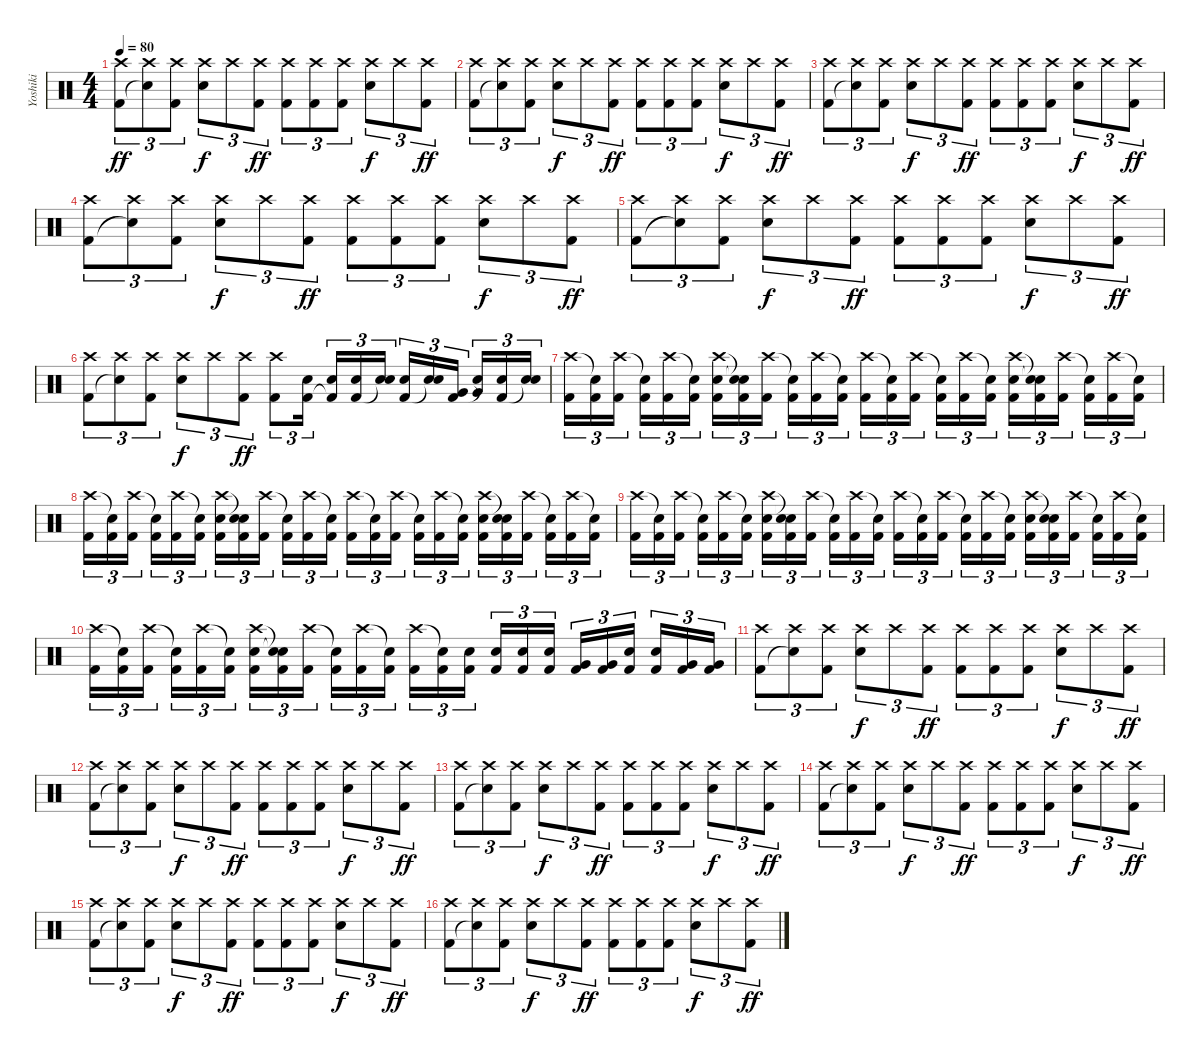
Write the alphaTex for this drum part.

\track ("Yoshiki" "Yoshiki") {instrument percussion}
\staff {score}
\articulation defaults
\ts (4 4)
\tempo 80
\clef neutral
\ks c
("Crash high (hit)" "Kick (hit) 2").8{tu (3 2) dy ff} ("Crash high (hit)" "Snare (hit)"{t}).8{tu (3 2)} ("Crash high (hit)" "Kick (hit) 2").8{tu (3 2)} ("Crash high (hit)" "Snare (hit) 2").8{tu (3 2) dy f} "Crash high (hit)".8{tu (3 2)} ("Crash high (hit)" "Kick (hit) 2").8{tu (3 2) dy ff} ("Crash high (hit)" "Kick (hit) 2").8{tu (3 2)} ("Crash high (hit)" "Kick (hit) 2").8{tu (3 2)} ("Crash high (hit)" "Kick (hit) 2").8{tu (3 2)} ("Crash high (hit)" "Snare (hit) 2").8{tu (3 2) dy f} "Crash high (hit)".8{tu (3 2)} ("Crash high (hit)" "Kick (hit) 2").8{tu (3 2) dy ff} |
("Crash high (hit)" "Kick (hit) 2").8{tu (3 2)} ("Crash high (hit)" "Snare (hit)"{t}).8{tu (3 2)} ("Crash high (hit)" "Kick (hit) 2").8{tu (3 2)} ("Crash high (hit)" "Snare (hit) 2").8{tu (3 2) dy f} "Crash high (hit)".8{tu (3 2)} ("Crash high (hit)" "Kick (hit) 2").8{tu (3 2) dy ff} ("Crash high (hit)" "Kick (hit) 2").8{tu (3 2)} ("Crash high (hit)" "Kick (hit) 2").8{tu (3 2)} ("Crash high (hit)" "Kick (hit) 2").8{tu (3 2)} ("Crash high (hit)" "Snare (hit) 2").8{tu (3 2) dy f} "Crash high (hit)".8{tu (3 2)} ("Crash high (hit)" "Kick (hit) 2").8{tu (3 2) dy ff} |
("Crash high (hit)" "Kick (hit) 2").8{tu (3 2)} ("Crash high (hit)" "Snare (hit)"{t}).8{tu (3 2)} ("Crash high (hit)" "Kick (hit) 2").8{tu (3 2)} ("Crash high (hit)" "Snare (hit) 2").8{tu (3 2) dy f} "Crash high (hit)".8{tu (3 2)} ("Crash high (hit)" "Kick (hit) 2").8{tu (3 2) dy ff} ("Crash high (hit)" "Kick (hit) 2").8{tu (3 2)} ("Crash high (hit)" "Kick (hit) 2").8{tu (3 2)} ("Crash high (hit)" "Kick (hit) 2").8{tu (3 2)} ("Crash high (hit)" "Snare (hit) 2").8{tu (3 2) dy f} "Crash high (hit)".8{tu (3 2)} ("Crash high (hit)" "Kick (hit) 2").8{tu (3 2) dy ff} |
("Crash high (hit)" "Kick (hit) 2").8{tu (3 2)} ("Crash high (hit)" "Snare (hit)"{t}).8{tu (3 2)} ("Crash high (hit)" "Kick (hit) 2").8{tu (3 2)} ("Crash high (hit)" "Snare (hit) 2").8{tu (3 2) dy f} "Crash high (hit)".8{tu (3 2)} ("Crash high (hit)" "Kick (hit) 2").8{tu (3 2) dy ff} ("Crash high (hit)" "Kick (hit) 2").8{tu (3 2)} ("Crash high (hit)" "Kick (hit) 2").8{tu (3 2)} ("Crash high (hit)" "Kick (hit) 2").8{tu (3 2)} ("Crash high (hit)" "Snare (hit) 2").8{tu (3 2) dy f} "Crash high (hit)".8{tu (3 2)} ("Crash high (hit)" "Kick (hit) 2").8{tu (3 2) dy ff} |
("Crash high (hit)" "Kick (hit) 2").8{tu (3 2)} ("Crash high (hit)" "Snare (hit)"{t}).8{tu (3 2)} ("Crash high (hit)" "Kick (hit) 2").8{tu (3 2)} ("Crash high (hit)" "Snare (hit) 2").8{tu (3 2) dy f} "Crash high (hit)".8{tu (3 2)} ("Crash high (hit)" "Kick (hit) 2").8{tu (3 2) dy ff} ("Crash high (hit)" "Kick (hit) 2").8{tu (3 2)} ("Crash high (hit)" "Kick (hit) 2").8{tu (3 2)} ("Crash high (hit)" "Kick (hit) 2").8{tu (3 2)} ("Crash high (hit)" "Snare (hit) 2").8{tu (3 2) dy f} "Crash high (hit)".8{tu (3 2)} ("Crash high (hit)" "Kick (hit) 2").8{tu (3 2) dy ff} |
("Crash high (hit)" "Kick (hit) 2").8{tu (3 2)} ("Crash high (hit)" "Snare (hit)"{t}).8{tu (3 2)} ("Crash high (hit)" "Kick (hit) 2").8{tu (3 2)} ("Crash high (hit)" "Snare (hit) 2").8{tu (3 2) dy f} "Crash high (hit)".8{tu (3 2)} ("Crash high (hit)" "Kick (hit) 2").8{tu (3 2) dy ff} ("Crash high (hit)" "Kick (hit) 2").8{tu (3 2)} ("Snare (hit) 2" "Kick (hit) 2").16{tu (3 2)} ("Snare (hit) 2" "Kick (hit) 2"{t}).16{tu (3 2)} ("Snare (hit) 2" "Kick (hit) 2").16{tu (3 2)} ("Snare (hit) 2" "Snare (hit)"{t}).16{tu (3 2)} ("Snare (hit) 2" "Kick (hit) 2").16{tu (3 2)} ("Snare (hit) 2" "Snare (hit)"{t}).16{tu (3 2)} ("Very Low Tom (hit)" "Kick (hit) 2").16{tu (3 2)} ("Very Low Tom (hit)" "Snare (hit)"{t}).16{tu (3 2)} ("Snare (hit) 2" "Kick (hit) 2").16{tu (3 2)} ("Snare (hit) 2" "Snare (hit)"{t}).16{tu (3 2)} |
("Crash high (hit)" "Kick (hit) 2").16{tu (3 2)} ("Snare (hit)"{t} "Kick (hit) 2").16{tu (3 2)} ("Crash high (hit)" "Kick (hit) 2").16{tu (3 2)} ("Snare (hit)"{t} "Kick (hit) 2").16{tu (3 2)} ("Crash high (hit)" "Kick (hit) 2").16{tu (3 2)} ("Snare (hit)"{t} "Kick (hit) 2").16{tu (3 2)} ("Crash high (hit)" "Snare (hit) 2" "Kick (hit) 2").16{tu (3 2)} ("Snare (hit)"{t} "Snare (hit)"{t} "Kick (hit) 2").16{tu (3 2)} ("Crash high (hit)" "Kick (hit) 2").16{tu (3 2)} ("Snare (hit)"{t} "Kick (hit) 2").16{tu (3 2)} ("Crash high (hit)" "Kick (hit) 2").16{tu (3 2)} ("Snare (hit)"{t} "Kick (hit) 2").16{tu (3 2)} ("Crash high (hit)" "Kick (hit) 2").16{tu (3 2)} ("Snare (hit)"{t} "Kick (hit) 2").16{tu (3 2)} ("Crash high (hit)" "Kick (hit) 2").16{tu (3 2)} ("Snare (hit)"{t} "Kick (hit) 2").16{tu (3 2)} ("Crash high (hit)" "Kick (hit) 2").16{tu (3 2)} ("Snare (hit)"{t} "Kick (hit) 2").16{tu (3 2)} ("Crash high (hit)" "Snare (hit) 2" "Kick (hit) 2").16{tu (3 2)} ("Snare (hit)"{t} "Snare (hit)"{t} "Kick (hit) 2").16{tu (3 2)} ("Crash high (hit)" "Kick (hit) 2").16{tu (3 2)} ("Snare (hit)"{t} "Kick (hit) 2").16{tu (3 2)} ("Crash high (hit)" "Kick (hit) 2").16{tu (3 2)} ("Snare (hit)"{t} "Kick (hit) 2").16{tu (3 2)} |
("Crash high (hit)" "Kick (hit) 2").16{tu (3 2)} ("Snare (hit)"{t} "Kick (hit) 2").16{tu (3 2)} ("Crash high (hit)" "Kick (hit) 2").16{tu (3 2)} ("Snare (hit)"{t} "Kick (hit) 2").16{tu (3 2)} ("Crash high (hit)" "Kick (hit) 2").16{tu (3 2)} ("Snare (hit)"{t} "Kick (hit) 2").16{tu (3 2)} ("Crash high (hit)" "Snare (hit) 2" "Kick (hit) 2").16{tu (3 2)} ("Snare (hit)"{t} "Snare (hit)"{t} "Kick (hit) 2").16{tu (3 2)} ("Crash high (hit)" "Kick (hit) 2").16{tu (3 2)} ("Snare (hit)"{t} "Kick (hit) 2").16{tu (3 2)} ("Crash high (hit)" "Kick (hit) 2").16{tu (3 2)} ("Snare (hit)"{t} "Kick (hit) 2").16{tu (3 2)} ("Crash high (hit)" "Kick (hit) 2").16{tu (3 2)} ("Snare (hit)"{t} "Kick (hit) 2").16{tu (3 2)} ("Crash high (hit)" "Kick (hit) 2").16{tu (3 2)} ("Snare (hit)"{t} "Kick (hit) 2").16{tu (3 2)} ("Crash high (hit)" "Kick (hit) 2").16{tu (3 2)} ("Snare (hit)"{t} "Kick (hit) 2").16{tu (3 2)} ("Crash high (hit)" "Snare (hit) 2" "Kick (hit) 2").16{tu (3 2)} ("Snare (hit)"{t} "Snare (hit)"{t} "Kick (hit) 2").16{tu (3 2)} ("Crash high (hit)" "Kick (hit) 2").16{tu (3 2)} ("Snare (hit)"{t} "Kick (hit) 2").16{tu (3 2)} ("Crash high (hit)" "Kick (hit) 2").16{tu (3 2)} ("Snare (hit)"{t} "Kick (hit) 2").16{tu (3 2)} |
("Crash high (hit)" "Kick (hit) 2").16{tu (3 2)} ("Snare (hit)"{t} "Kick (hit) 2").16{tu (3 2)} ("Crash high (hit)" "Kick (hit) 2").16{tu (3 2)} ("Snare (hit)"{t} "Kick (hit) 2").16{tu (3 2)} ("Crash high (hit)" "Kick (hit) 2").16{tu (3 2)} ("Snare (hit)"{t} "Kick (hit) 2").16{tu (3 2)} ("Crash high (hit)" "Snare (hit) 2" "Kick (hit) 2").16{tu (3 2)} ("Snare (hit)"{t} "Snare (hit)"{t} "Kick (hit) 2").16{tu (3 2)} ("Crash high (hit)" "Kick (hit) 2").16{tu (3 2)} ("Snare (hit)"{t} "Kick (hit) 2").16{tu (3 2)} ("Crash high (hit)" "Kick (hit) 2").16{tu (3 2)} ("Snare (hit)"{t} "Kick (hit) 2").16{tu (3 2)} ("Crash high (hit)" "Kick (hit) 2").16{tu (3 2)} ("Snare (hit)"{t} "Kick (hit) 2").16{tu (3 2)} ("Crash high (hit)" "Kick (hit) 2").16{tu (3 2)} ("Snare (hit)"{t} "Kick (hit) 2").16{tu (3 2)} ("Crash high (hit)" "Kick (hit) 2").16{tu (3 2)} ("Snare (hit)"{t} "Kick (hit) 2").16{tu (3 2)} ("Crash high (hit)" "Snare (hit) 2" "Kick (hit) 2").16{tu (3 2)} ("Snare (hit)"{t} "Snare (hit)"{t} "Kick (hit) 2").16{tu (3 2)} ("Crash high (hit)" "Kick (hit) 2").16{tu (3 2)} ("Snare (hit)"{t} "Kick (hit) 2").16{tu (3 2)} ("Crash high (hit)" "Kick (hit) 2").16{tu (3 2)} ("Snare (hit)"{t} "Kick (hit) 2").16{tu (3 2)} |
("Crash high (hit)" "Kick (hit) 2").16{tu (3 2)} ("Snare (hit)"{t} "Kick (hit) 2").16{tu (3 2)} ("Crash high (hit)" "Kick (hit) 2").16{tu (3 2)} ("Snare (hit)"{t} "Kick (hit) 2").16{tu (3 2)} ("Crash high (hit)" "Kick (hit) 2").16{tu (3 2)} ("Snare (hit)"{t} "Kick (hit) 2").16{tu (3 2)} ("Crash high (hit)" "Snare (hit) 2" "Kick (hit) 2").16{tu (3 2)} ("Snare (hit)"{t} "Snare (hit)"{t} "Kick (hit) 2").16{tu (3 2)} ("Crash high (hit)" "Kick (hit) 2").16{tu (3 2)} ("Snare (hit)"{t} "Kick (hit) 2").16{tu (3 2)} ("Crash high (hit)" "Kick (hit) 2").16{tu (3 2)} ("Snare (hit)"{t} "Kick (hit) 2").16{tu (3 2)} ("Crash high (hit)" "Kick (hit) 2").16{tu (3 2)} ("Snare (hit)"{t} "Kick (hit) 2").16{tu (3 2)} ("Snare (hit) 2" "Kick (hit) 2").16{tu (3 2)} ("Snare (hit) 2" "Kick (hit) 2").16{tu (3 2)} ("Snare (hit) 2" "Kick (hit) 2").16{tu (3 2)} ("Snare (hit) 2" "Kick (hit) 2").16{tu (3 2)} ("Very Low Tom (hit)" "Kick (hit) 2").16{tu (3 2)} ("Very Low Tom (hit)" "Kick (hit) 2").16{tu (3 2)} ("Snare (hit) 2" "Kick (hit) 2").16{tu (3 2)} ("Snare (hit) 2" "Kick (hit) 2").16{tu (3 2)} ("Very Low Tom (hit)" "Kick (hit) 2").16{tu (3 2)} ("Very Low Tom (hit)" "Kick (hit) 2").16{tu (3 2)} |
("Crash high (hit)" "Kick (hit) 2").8{tu (3 2)} ("Crash high (hit)" "Snare (hit)"{t}).8{tu (3 2)} ("Crash high (hit)" "Kick (hit) 2").8{tu (3 2)} ("Crash high (hit)" "Snare (hit) 2").8{tu (3 2) dy f} "Crash high (hit)".8{tu (3 2)} ("Crash high (hit)" "Kick (hit) 2").8{tu (3 2) dy ff} ("Crash high (hit)" "Kick (hit) 2").8{tu (3 2)} ("Crash high (hit)" "Kick (hit) 2").8{tu (3 2)} ("Crash high (hit)" "Kick (hit) 2").8{tu (3 2)} ("Crash high (hit)" "Snare (hit) 2").8{tu (3 2) dy f} "Crash high (hit)".8{tu (3 2)} ("Crash high (hit)" "Kick (hit) 2").8{tu (3 2) dy ff} |
("Crash high (hit)" "Kick (hit) 2").8{tu (3 2)} ("Crash high (hit)" "Snare (hit)"{t}).8{tu (3 2)} ("Crash high (hit)" "Kick (hit) 2").8{tu (3 2)} ("Crash high (hit)" "Snare (hit) 2").8{tu (3 2) dy f} "Crash high (hit)".8{tu (3 2)} ("Crash high (hit)" "Kick (hit) 2").8{tu (3 2) dy ff} ("Crash high (hit)" "Kick (hit) 2").8{tu (3 2)} ("Crash high (hit)" "Kick (hit) 2").8{tu (3 2)} ("Crash high (hit)" "Kick (hit) 2").8{tu (3 2)} ("Crash high (hit)" "Snare (hit) 2").8{tu (3 2) dy f} "Crash high (hit)".8{tu (3 2)} ("Crash high (hit)" "Kick (hit) 2").8{tu (3 2) dy ff} |
("Crash high (hit)" "Kick (hit) 2").8{tu (3 2)} ("Crash high (hit)" "Snare (hit)"{t}).8{tu (3 2)} ("Crash high (hit)" "Kick (hit) 2").8{tu (3 2)} ("Crash high (hit)" "Snare (hit) 2").8{tu (3 2) dy f} "Crash high (hit)".8{tu (3 2)} ("Crash high (hit)" "Kick (hit) 2").8{tu (3 2) dy ff} ("Crash high (hit)" "Kick (hit) 2").8{tu (3 2)} ("Crash high (hit)" "Kick (hit) 2").8{tu (3 2)} ("Crash high (hit)" "Kick (hit) 2").8{tu (3 2)} ("Crash high (hit)" "Snare (hit) 2").8{tu (3 2) dy f} "Crash high (hit)".8{tu (3 2)} ("Crash high (hit)" "Kick (hit) 2").8{tu (3 2) dy ff} |
("Crash high (hit)" "Kick (hit) 2").8{tu (3 2)} ("Crash high (hit)" "Snare (hit)"{t}).8{tu (3 2)} ("Crash high (hit)" "Kick (hit) 2").8{tu (3 2)} ("Crash high (hit)" "Snare (hit) 2").8{tu (3 2) dy f} "Crash high (hit)".8{tu (3 2)} ("Crash high (hit)" "Kick (hit) 2").8{tu (3 2) dy ff} ("Crash high (hit)" "Kick (hit) 2").8{tu (3 2)} ("Crash high (hit)" "Kick (hit) 2").8{tu (3 2)} ("Crash high (hit)" "Kick (hit) 2").8{tu (3 2)} ("Crash high (hit)" "Snare (hit) 2").8{tu (3 2) dy f} "Crash high (hit)".8{tu (3 2)} ("Crash high (hit)" "Kick (hit) 2").8{tu (3 2) dy ff} |
("Crash high (hit)" "Kick (hit) 2").8{tu (3 2)} ("Crash high (hit)" "Snare (hit)"{t}).8{tu (3 2)} ("Crash high (hit)" "Kick (hit) 2").8{tu (3 2)} ("Crash high (hit)" "Snare (hit) 2").8{tu (3 2) dy f} "Crash high (hit)".8{tu (3 2)} ("Crash high (hit)" "Kick (hit) 2").8{tu (3 2) dy ff} ("Crash high (hit)" "Kick (hit) 2").8{tu (3 2)} ("Crash high (hit)" "Kick (hit) 2").8{tu (3 2)} ("Crash high (hit)" "Kick (hit) 2").8{tu (3 2)} ("Crash high (hit)" "Snare (hit) 2").8{tu (3 2) dy f} "Crash high (hit)".8{tu (3 2)} ("Crash high (hit)" "Kick (hit) 2").8{tu (3 2) dy ff} |
("Crash high (hit)" "Kick (hit) 2").8{tu (3 2)} ("Crash high (hit)" "Snare (hit)"{t}).8{tu (3 2)} ("Crash high (hit)" "Kick (hit) 2").8{tu (3 2)} ("Crash high (hit)" "Snare (hit) 2").8{tu (3 2) dy f} "Crash high (hit)".8{tu (3 2)} ("Crash high (hit)" "Kick (hit) 2").8{tu (3 2) dy ff} ("Crash high (hit)" "Kick (hit) 2").8{tu (3 2)} ("Crash high (hit)" "Kick (hit) 2").8{tu (3 2)} ("Crash high (hit)" "Kick (hit) 2").8{tu (3 2)} ("Crash high (hit)" "Snare (hit) 2").8{tu (3 2) dy f} "Crash high (hit)".8{tu (3 2)} ("Crash high (hit)" "Kick (hit) 2").8{tu (3 2) dy ff}
